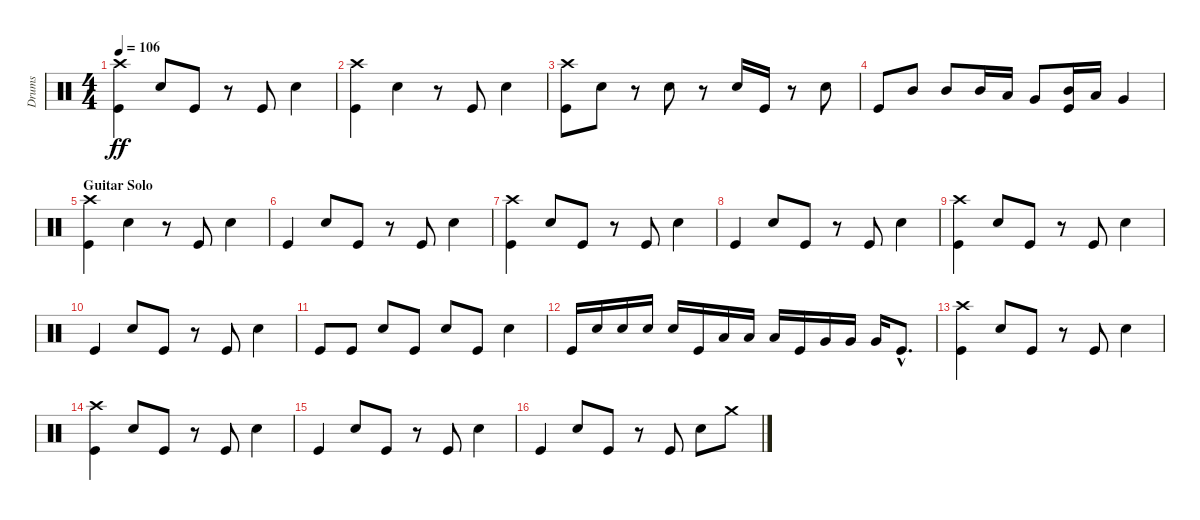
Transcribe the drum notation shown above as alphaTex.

\track ("Drums" "Drums") {instrument percussion}
\staff {score}
\articulation defaults
\ts (4 4)
\tempo 106
\clef neutral
\ks c
("Crash high (hit)" "Kick (hit)").4{dy ff} "Snare (hit) 2".8 "Kick (hit)".8 r.8 "Kick (hit)".8 "Snare (hit) 2".4 |
("Crash high (hit)" "Kick (hit)").4 "Snare (hit) 2".4 r.8 "Kick (hit)".8 "Snare (hit) 2".4 |
("Crash high (hit)" "Kick (hit)").8 "Snare (hit) 2".8 r.8 "Snare (hit) 2".8 r.8 "Snare (hit) 2".16 "Kick (hit)".16 r.8 "Snare (hit) 2".8 |
"Kick (hit)".8 "Mid Tom (hit)".8 "Mid Tom (hit)".8 "Mid Tom (hit)".16 "Low Tom (hit)".16 "Very Low Tom (hit)".8 ("Mid Tom (hit)" "Kick (hit)").16 "Low Tom (hit)".16 "Very Low Tom (hit)".4 |
\section ("" "Guitar Solo")
("Crash high (hit)" "Kick (hit)").4 "Snare (hit) 2".4 r.8 "Kick (hit)".8 "Snare (hit) 2".4 |
"Kick (hit)".4 "Snare (hit) 2".8 "Kick (hit)".8 r.8 "Kick (hit)".8 "Snare (hit) 2".4 |
("Crash high (hit)" "Kick (hit)").4 "Snare (hit) 2".8 "Kick (hit)".8 r.8 "Kick (hit)".8 "Snare (hit) 2".4 |
"Kick (hit)".4 "Snare (hit) 2".8 "Kick (hit)".8 r.8 "Kick (hit)".8 "Snare (hit) 2".4 |
("Crash high (hit)" "Kick (hit)").4 "Snare (hit) 2".8 "Kick (hit)".8 r.8 "Kick (hit)".8 "Snare (hit) 2".4 |
"Kick (hit)".4 "Snare (hit) 2".8 "Kick (hit)".8 r.8 "Kick (hit)".8 "Snare (hit) 2".4 |
"Kick (hit)".8 "Kick (hit)".8 "Snare (hit) 2".8 "Kick (hit)".8 "Snare (hit) 2".8 "Kick (hit)".8 "Snare (hit) 2".4 |
"Kick (hit)".16 "Snare (hit) 2".16 "Snare (hit) 2".16 "Snare (hit) 2".16 "Snare (hit) 2".16 "Kick (hit)".16 "Low Tom (hit)".16 "Low Tom (hit)".16 "Low Tom (hit)".16 "Kick (hit)".16 "Very Low Tom (hit)".16 "Very Low Tom (hit)".16 "Very Low Tom (hit)".16 "Kick (hit)"{hac}.8{d} |
("Crash high (hit)" "Kick (hit)").4 "Snare (hit) 2".8 "Kick (hit)".8 r.8 "Kick (hit)".8 "Snare (hit) 2".4 |
("Crash high (hit)" "Kick (hit)").4 "Snare (hit) 2".8 "Kick (hit)".8 r.8 "Kick (hit)".8 "Snare (hit) 2".4 |
"Kick (hit)".4 "Snare (hit) 2".8 "Kick (hit)".8 r.8 "Kick (hit)".8 "Snare (hit) 2".4 |
"Kick (hit)".4 "Snare (hit) 2".8 "Kick (hit)".8 r.8 "Kick (hit)".8 "Snare (hit) 2".8 "Crash medium (hit)".8
